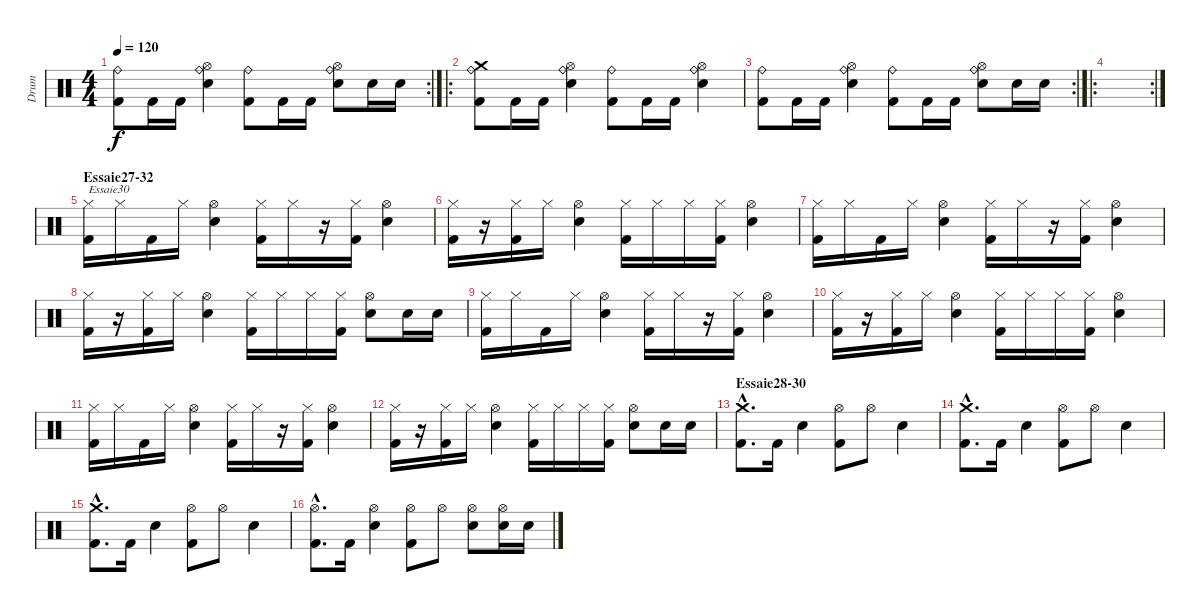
\track ("Drum" "Drum") {instrument percussion}
\staff {score}
\articulation defaults
\rc 2
\ts (4 4)
\tempo 120
\clef neutral
\ks c
("Ride (bell)" "Kick (hit) 2").8{dy f} "Kick (hit) 2".16 "Kick (hit) 2".16 ("Ride (bell)" "Hi-Hat (open)" "Snare (hit) 2").4 ("Ride (bell)" "Kick (hit) 2").8 "Kick (hit) 2".16 "Kick (hit) 2".16 ("Ride (bell)" "Hi-Hat (open)" "Snare (hit) 2").8 "Snare (hit) 2".16 "Snare (hit) 2".16 |
\ro
("Ride (bell)" "Crash medium (hit)" "Kick (hit) 2").8 "Kick (hit) 2".16 "Kick (hit) 2".16 ("Ride (bell)" "Hi-Hat (open)" "Snare (hit) 2").4 ("Ride (bell)" "Kick (hit) 2").8 "Kick (hit) 2".16 "Kick (hit) 2".16 ("Ride (bell)" "Hi-Hat (open)" "Snare (hit) 2").4 |
\rc 2
("Ride (bell)" "Kick (hit) 2").8 "Kick (hit) 2".16 "Kick (hit) 2".16 ("Ride (bell)" "Hi-Hat (open)" "Snare (hit) 2").4 ("Ride (bell)" "Kick (hit) 2").8 "Kick (hit) 2".16 "Kick (hit) 2".16 ("Ride (bell)" "Hi-Hat (open)" "Snare (hit) 2").8 "Snare (hit) 2".16 "Snare (hit) 2".16 |
\ro
\rc 2
|
\section ("" "Essaie27-32")
("Hi-Hat (closed)" "Kick (hit) 2").16{txt "Essaie30"} "Hi-Hat (closed)".16 "Kick (hit) 2".16 "Hi-Hat (closed)".16 ("Hi-Hat (open)" "Snare (hit) 2").4 ("Hi-Hat (closed)" "Kick (hit) 2").16 "Hi-Hat (closed)".16 r.16 ("Hi-Hat (closed)" "Kick (hit) 2").16 ("Hi-Hat (open)" "Snare (hit) 2").4 |
("Hi-Hat (closed)" "Kick (hit) 2").16 r.16 ("Hi-Hat (closed)" "Kick (hit) 2").16 "Hi-Hat (closed)".16 ("Hi-Hat (open)" "Snare (hit) 2").4 ("Hi-Hat (closed)" "Kick (hit) 2").16 "Hi-Hat (closed)".16 "Hi-Hat (closed)".16 ("Hi-Hat (closed)" "Kick (hit) 2").16 ("Hi-Hat (open)" "Snare (hit) 2").4 |
("Hi-Hat (closed)" "Kick (hit) 2").16 "Hi-Hat (closed)".16 "Kick (hit) 2".16 "Hi-Hat (closed)".16 ("Hi-Hat (open)" "Snare (hit) 2").4 ("Hi-Hat (closed)" "Kick (hit) 2").16 "Hi-Hat (closed)".16 r.16 ("Hi-Hat (closed)" "Kick (hit) 2").16 ("Hi-Hat (open)" "Snare (hit) 2").4 |
("Hi-Hat (closed)" "Kick (hit) 2").16 r.16 ("Hi-Hat (closed)" "Kick (hit) 2").16 "Hi-Hat (closed)".16 ("Hi-Hat (open)" "Snare (hit) 2").4 ("Hi-Hat (closed)" "Kick (hit) 2").16 "Hi-Hat (closed)".16 "Hi-Hat (closed)".16 ("Hi-Hat (closed)" "Kick (hit) 2").16 ("Hi-Hat (open)" "Snare (hit) 2").8 "Snare (hit) 2".16 "Snare (hit) 2".16 |
("Hi-Hat (closed)" "Kick (hit) 2").16 "Hi-Hat (closed)".16 "Kick (hit) 2".16 "Hi-Hat (closed)".16 ("Hi-Hat (open)" "Snare (hit) 2").4 ("Hi-Hat (closed)" "Kick (hit) 2").16 "Hi-Hat (closed)".16 r.16 ("Hi-Hat (closed)" "Kick (hit) 2").16 ("Hi-Hat (open)" "Snare (hit) 2").4 |
("Hi-Hat (closed)" "Kick (hit) 2").16 r.16 ("Hi-Hat (closed)" "Kick (hit) 2").16 "Hi-Hat (closed)".16 ("Hi-Hat (open)" "Snare (hit) 2").4 ("Hi-Hat (closed)" "Kick (hit) 2").16 "Hi-Hat (closed)".16 "Hi-Hat (closed)".16 ("Hi-Hat (closed)" "Kick (hit) 2").16 ("Hi-Hat (open)" "Snare (hit) 2").4 |
("Hi-Hat (closed)" "Kick (hit) 2").16 "Hi-Hat (closed)".16 "Kick (hit) 2".16 "Hi-Hat (closed)".16 ("Hi-Hat (open)" "Snare (hit) 2").4 ("Hi-Hat (closed)" "Kick (hit) 2").16 "Hi-Hat (closed)".16 r.16 ("Hi-Hat (closed)" "Kick (hit) 2").16 ("Hi-Hat (open)" "Snare (hit) 2").4 |
("Hi-Hat (closed)" "Kick (hit) 2").16 r.16 ("Hi-Hat (closed)" "Kick (hit) 2").16 "Hi-Hat (closed)".16 ("Hi-Hat (open)" "Snare (hit) 2").4 ("Hi-Hat (closed)" "Kick (hit) 2").16 "Hi-Hat (closed)".16 "Hi-Hat (closed)".16 ("Hi-Hat (closed)" "Kick (hit) 2").16 ("Hi-Hat (open)" "Snare (hit) 2").8 "Snare (hit) 2".16 "Snare (hit) 2".16 |
\section ("" "Essaie28-30")
("Crash medium (hit)"{hac} "Kick (hit) 2"{hac}).8{d} "Kick (hit) 2".16 "Snare (hit) 2".4 ("Hi-Hat (open)" "Kick (hit) 2").8 "Hi-Hat (open)".8 "Snare (hit) 2".4 |
("Crash medium (hit)"{hac} "Kick (hit) 2"{hac}).8{d} "Kick (hit) 2".16 "Snare (hit) 2".4 ("Hi-Hat (open)" "Kick (hit) 2").8 "Hi-Hat (open)".8 "Snare (hit) 2".4 |
("Crash medium (hit)"{hac} "Kick (hit) 2"{hac}).8{d} "Kick (hit) 2".16 "Snare (hit) 2".4 ("Hi-Hat (open)" "Kick (hit) 2").8 "Hi-Hat (open)".8 "Snare (hit) 2".4 |
("Hi-Hat (open)"{hac} "Kick (hit) 2"{hac}).8{d} "Kick (hit) 2".16 ("Hi-Hat (open)" "Snare (hit) 2").4 ("Hi-Hat (open)" "Kick (hit) 2").8 "Hi-Hat (open)".8 ("Hi-Hat (open)" "Snare (hit) 2").8 ("Hi-Hat (open)" "Snare (hit) 2").16 "Snare (hit) 2".16
